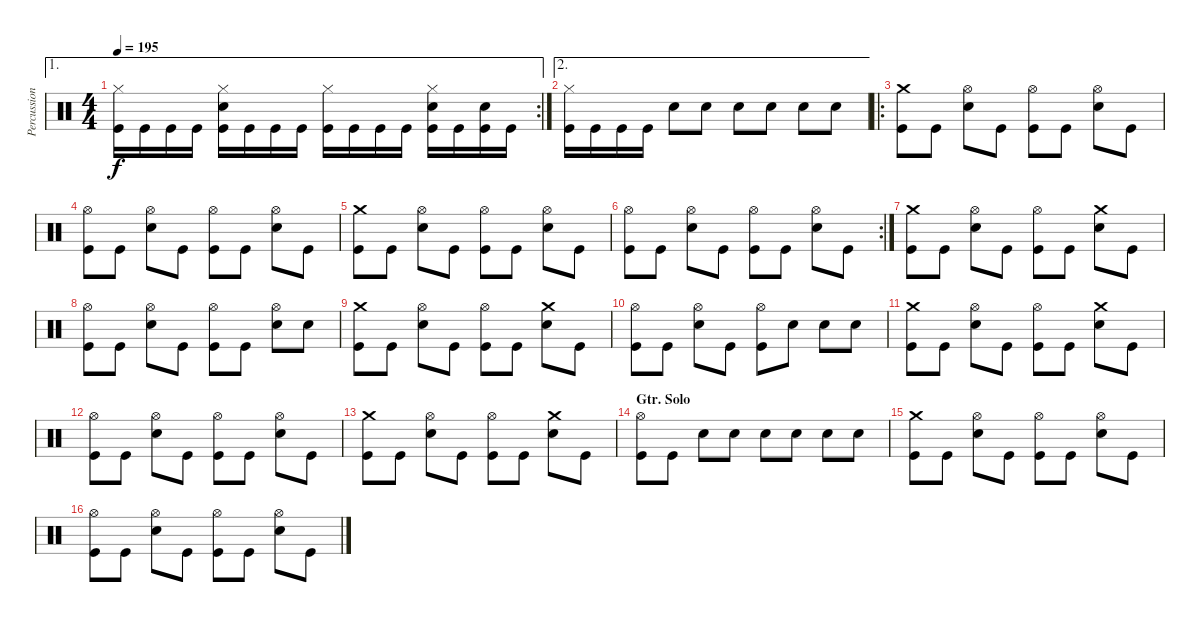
\track ("Percussion" "Percussion") {instrument percussion}
\staff {score}
\articulation defaults
\ae 1
\rc 2
\ts (4 4)
\tempo 195
\clef neutral
\ks c
("Hi-Hat (closed)" "Kick (hit)").16{dy f} "Kick (hit)".16 "Kick (hit)".16 "Kick (hit)".16 ("Hi-Hat (closed)" "Snare (hit) 2" "Kick (hit)").16 "Kick (hit)".16 "Kick (hit)".16 "Kick (hit)".16 ("Hi-Hat (closed)" "Kick (hit)").16 "Kick (hit)".16 "Kick (hit)".16 "Kick (hit)".16 ("Hi-Hat (closed)" "Snare (hit) 2" "Kick (hit)").16 "Kick (hit)".16 ("Snare (hit) 2" "Kick (hit)").16 "Kick (hit)".16 |
\ae 2
("Hi-Hat (closed)" "Kick (hit)").16 "Kick (hit)".16 "Kick (hit)".16 "Kick (hit)".16 "Snare (hit) 2".8 "Snare (hit) 2".8 "Snare (hit) 2".8 "Snare (hit) 2".8 "Snare (hit) 2".8 "Snare (hit) 2".8 |
\ro
("Crash medium (hit)" "Kick (hit)").8 "Kick (hit)".8 ("Hi-Hat (open)" "Snare (hit) 2").8 "Kick (hit)".8 ("Hi-Hat (open)" "Kick (hit)").8 "Kick (hit)".8 ("Hi-Hat (open)" "Snare (hit) 2").8 "Kick (hit)".8 |
("Hi-Hat (open)" "Kick (hit)").8 "Kick (hit)".8 ("Hi-Hat (open)" "Snare (hit) 2").8 "Kick (hit)".8 ("Hi-Hat (open)" "Kick (hit)").8 "Kick (hit)".8 ("Hi-Hat (open)" "Snare (hit) 2").8 "Kick (hit)".8 |
("Crash medium (hit)" "Kick (hit)").8 "Kick (hit)".8 ("Hi-Hat (open)" "Snare (hit) 2").8 "Kick (hit)".8 ("Hi-Hat (open)" "Kick (hit)").8 "Kick (hit)".8 ("Hi-Hat (open)" "Snare (hit) 2").8 "Kick (hit)".8 |
\rc 2
("Hi-Hat (open)" "Kick (hit)").8 "Kick (hit)".8 ("Hi-Hat (open)" "Snare (hit) 2").8 "Kick (hit)".8 ("Hi-Hat (open)" "Kick (hit)").8 "Kick (hit)".8 ("Hi-Hat (open)" "Snare (hit) 2").8 "Kick (hit)".8 |
("Crash medium (hit)" "Kick (hit)").8 "Kick (hit)".8 ("Hi-Hat (open)" "Snare (hit) 2").8 "Kick (hit)".8 ("Hi-Hat (open)" "Kick (hit)").8 "Kick (hit)".8 ("Crash medium (hit)" "Snare (hit) 2").8 "Kick (hit)".8 |
("Hi-Hat (open)" "Kick (hit)").8 "Kick (hit)".8 ("Hi-Hat (open)" "Snare (hit) 2").8 "Kick (hit)".8 ("Hi-Hat (open)" "Kick (hit)").8 "Kick (hit)".8 ("Hi-Hat (open)" "Snare (hit) 2").8 "Snare (hit) 2".8 |
("Crash medium (hit)" "Kick (hit)").8 "Kick (hit)".8 ("Hi-Hat (open)" "Snare (hit) 2").8 "Kick (hit)".8 ("Hi-Hat (open)" "Kick (hit)").8 "Kick (hit)".8 ("Crash medium (hit)" "Snare (hit) 2").8 "Kick (hit)".8 |
("Hi-Hat (open)" "Kick (hit)").8 "Kick (hit)".8 ("Hi-Hat (open)" "Snare (hit) 2").8 "Kick (hit)".8 ("Hi-Hat (open)" "Kick (hit)").8 "Snare (hit) 2".8 "Snare (hit) 2".8 "Snare (hit) 2".8 |
("Crash medium (hit)" "Kick (hit)").8 "Kick (hit)".8 ("Hi-Hat (open)" "Snare (hit) 2").8 "Kick (hit)".8 ("Hi-Hat (open)" "Kick (hit)").8 "Kick (hit)".8 ("Crash medium (hit)" "Snare (hit) 2").8 "Kick (hit)".8 |
("Hi-Hat (open)" "Kick (hit)").8 "Kick (hit)".8 ("Hi-Hat (open)" "Snare (hit) 2").8 "Kick (hit)".8 ("Hi-Hat (open)" "Kick (hit)").8 "Kick (hit)".8 ("Hi-Hat (open)" "Snare (hit) 2").8 "Kick (hit)".8 |
("Crash medium (hit)" "Kick (hit)").8 "Kick (hit)".8 ("Hi-Hat (open)" "Snare (hit) 2").8 "Kick (hit)".8 ("Hi-Hat (open)" "Kick (hit)").8 "Kick (hit)".8 ("Crash medium (hit)" "Snare (hit) 2").8 "Kick (hit)".8 |
\section ("" "Gtr. Solo")
("Hi-Hat (open)" "Kick (hit)").8 "Kick (hit)".8 "Snare (hit) 2".8 "Snare (hit) 2".8 "Snare (hit) 2".8 "Snare (hit) 2".8 "Snare (hit) 2".8 "Snare (hit) 2".8 |
("Crash medium (hit)" "Kick (hit)").8 "Kick (hit)".8 ("Hi-Hat (open)" "Snare (hit) 2").8 "Kick (hit)".8 ("Hi-Hat (open)" "Kick (hit)").8 "Kick (hit)".8 ("Hi-Hat (open)" "Snare (hit) 2").8 "Kick (hit)".8 |
("Hi-Hat (open)" "Kick (hit)").8 "Kick (hit)".8 ("Hi-Hat (open)" "Snare (hit) 2").8 "Kick (hit)".8 ("Hi-Hat (open)" "Kick (hit)").8 "Kick (hit)".8 ("Hi-Hat (open)" "Snare (hit) 2").8 "Kick (hit)".8
